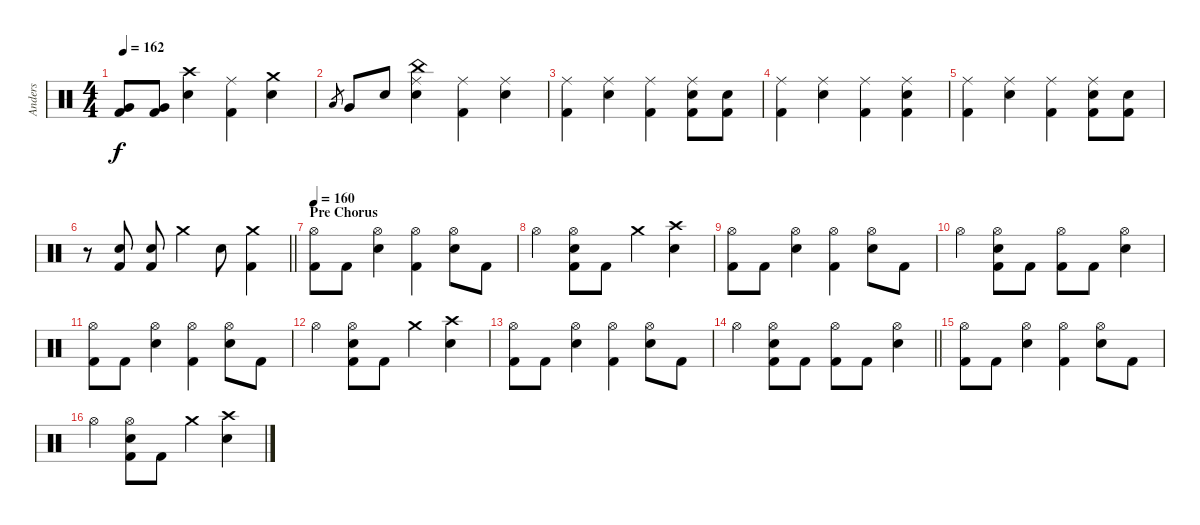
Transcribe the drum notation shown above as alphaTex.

\track ("Anders" "Anders") {instrument percussion}
\staff {score}
\articulation defaults
\ts (4 4)
\tempo 162
\clef neutral
\ks c
("Very Low Tom (hit)" "Kick (hit) 2").8{dy f} ("Very Low Tom (hit)" "Kick (hit) 2").8 ("Crash high (hit)" "Snare (hit) 2").4 ("Ride (middle)" "Kick (hit) 2").4 ("Crash medium (hit)" "Snare (hit) 2").4 |
"Low Floor Tom (hit)".8{gr} "Very Low Tom (hit)".8 "Snare (hit) 2".8 ("Ride (middle)" "China (hit)" "Snare (hit) 2").4 ("Ride (middle)" "Kick (hit) 2").4 ("Ride (middle)" "Snare (hit) 2").4 |
("Ride (middle)" "Kick (hit) 2").4 ("Ride (middle)" "Snare (hit) 2").4 ("Ride (middle)" "Kick (hit) 2").4 ("Ride (middle)" "Snare (hit) 2" "Kick (hit) 2").8 ("Snare (hit) 2" "Kick (hit) 2").8 |
("Ride (middle)" "Kick (hit) 2").4 ("Ride (middle)" "Snare (hit) 2").4 ("Ride (middle)" "Kick (hit) 2").4 ("Ride (middle)" "Snare (hit) 2" "Kick (hit) 2").4 |
("Ride (middle)" "Kick (hit) 2").4 ("Ride (middle)" "Snare (hit) 2").4 ("Ride (middle)" "Kick (hit) 2").4 ("Ride (middle)" "Snare (hit) 2" "Kick (hit) 2").8 ("Snare (hit) 2" "Kick (hit) 2").8 |
\barLineRight lightlight
r.8 ("Snare (hit) 2" "Kick (hit) 2").8 ("Snare (hit) 2" "Kick (hit) 2").8 "Crash medium (hit)".4 "Snare (hit) 2".8 ("Crash medium (hit)" "Kick (hit) 2").4 |
\section ("" "Pre Chorus")
\tempo 160
("Hi-Hat (open)" "Kick (hit) 2").8 "Kick (hit) 2".8 ("Hi-Hat (open)" "Snare (hit) 2").4 ("Hi-Hat (open)" "Kick (hit) 2").4 ("Hi-Hat (open)" "Snare (hit) 2").8 "Kick (hit) 2".8 |
"Hi-Hat (open)".4 ("Hi-Hat (open)" "Snare (hit) 2" "Kick (hit) 2").8 "Kick (hit) 2".8 "Crash medium (hit)".4 ("Crash high (hit)" "Snare (hit) 2").4 |
("Hi-Hat (open)" "Kick (hit) 2").8 "Kick (hit) 2".8 ("Hi-Hat (open)" "Snare (hit) 2").4 ("Hi-Hat (open)" "Kick (hit) 2").4 ("Hi-Hat (open)" "Snare (hit) 2").8 "Kick (hit) 2".8 |
"Hi-Hat (open)".4 ("Hi-Hat (open)" "Snare (hit) 2" "Kick (hit) 2").8 "Kick (hit) 2".8 ("Hi-Hat (open)" "Kick (hit) 2").8 "Kick (hit) 2".8 ("Hi-Hat (open)" "Snare (hit) 2").4 |
("Hi-Hat (open)" "Kick (hit) 2").8 "Kick (hit) 2".8 ("Hi-Hat (open)" "Snare (hit) 2").4 ("Hi-Hat (open)" "Kick (hit) 2").4 ("Hi-Hat (open)" "Snare (hit) 2").8 "Kick (hit) 2".8 |
"Hi-Hat (open)".4 ("Hi-Hat (open)" "Snare (hit) 2" "Kick (hit) 2").8 "Kick (hit) 2".8 "Crash medium (hit)".4 ("Crash high (hit)" "Snare (hit) 2").4 |
("Hi-Hat (open)" "Kick (hit) 2").8 "Kick (hit) 2".8 ("Hi-Hat (open)" "Snare (hit) 2").4 ("Hi-Hat (open)" "Kick (hit) 2").4 ("Hi-Hat (open)" "Snare (hit) 2").8 "Kick (hit) 2".8 |
\barLineRight lightlight "Hi-Hat (open)".4
("Hi-Hat (open)" "Snare (hit) 2" "Kick (hit) 2").8 "Kick (hit) 2".8 ("Hi-Hat (open)" "Kick (hit) 2").8 "Kick (hit) 2".8 ("Hi-Hat (open)" "Snare (hit) 2").4 |
("Hi-Hat (open)" "Kick (hit) 2").8 "Kick (hit) 2".8 ("Hi-Hat (open)" "Snare (hit) 2").4 ("Hi-Hat (open)" "Kick (hit) 2").4 ("Hi-Hat (open)" "Snare (hit) 2").8 "Kick (hit) 2".8 |
"Hi-Hat (open)".4 ("Hi-Hat (open)" "Snare (hit) 2" "Kick (hit) 2").8 "Kick (hit) 2".8 "Crash medium (hit)".4 ("Crash high (hit)" "Snare (hit) 2").4
